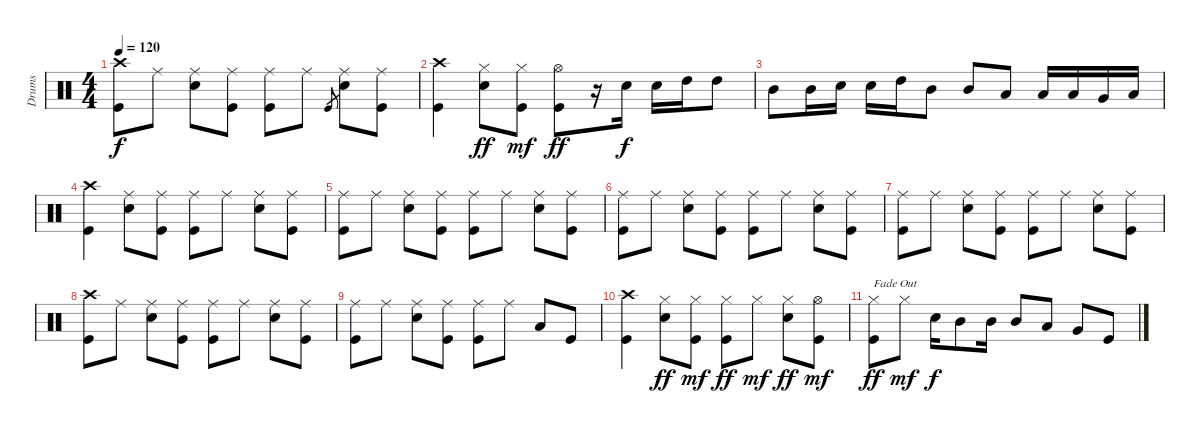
\track ("Drums" "Drums") {instrument percussion}
\staff {score}
\articulation defaults
\ts (4 4)
\tempo 120
\clef neutral
\ks c
("Crash high (hit)" "Kick (hit)").8{dy f} "Ride (middle)".8 ("Ride (middle)" "Snare (hit) 2").8 ("Ride (middle)" "Kick (hit)").8 ("Ride (middle)" "Kick (hit)").8 "Ride (middle)".8 "Kick (hit)".8{gr} ("Ride (middle)" "Snare (hit) 2").8 ("Ride (middle)" "Kick (hit)").8 |
("Crash high (hit)" "Kick (hit)").4 ("Hi-Hat (closed)" "Snare (hit) 2").8{dy ff} ("Hi-Hat (closed)" "Kick (hit)").8{dy mf} ("Hi-Hat (open)" "Kick (hit)").8{dy ff} r.16 "Snare (hit) 2".16{dy f} "Snare (hit) 2".16 "High Tom (hit)".16 "High Tom (hit)".8 |
"Mid Tom (hit)".8 "Mid Tom (hit)".16 "Snare (hit) 2".16 "Snare (hit) 2".16 "High Tom (hit)".16 "Mid Tom (hit)".8 "Mid Tom (hit)".8 "Low Tom (hit)".8 "Low Tom (hit)".16 "Low Tom (hit)".16 "Very Low Tom (hit)".16 "Low Floor Tom (hit)".16 |
("Crash high (hit)" "Kick (hit)").4{volume 8} ("Ride (middle)" "Snare (hit) 2").8 ("Ride (middle)" "Kick (hit)").8 ("Ride (middle)" "Kick (hit)").8 "Ride (middle)".8 ("Ride (middle)" "Snare (hit) 2").8 ("Ride (middle)" "Kick (hit)").8 |
("Ride (middle)" "Kick (hit)").8 "Ride (middle)".8 ("Ride (middle)" "Snare (hit) 2").8 ("Ride (middle)" "Kick (hit)").8 ("Ride (middle)" "Kick (hit)").8 "Ride (middle)".8 ("Ride (middle)" "Snare (hit) 2").8 ("Ride (middle)" "Kick (hit)").8 |
("Ride (middle)" "Kick (hit)").8 "Ride (middle)".8 ("Ride (middle)" "Snare (hit) 2").8 ("Ride (middle)" "Kick (hit)").8 ("Ride (middle)" "Kick (hit)").8 "Ride (middle)".8 ("Ride (middle)" "Snare (hit) 2").8 ("Ride (middle)" "Kick (hit)").8 |
("Ride (middle)" "Kick (hit)").8 "Ride (middle)".8 ("Ride (middle)" "Snare (hit) 2").8 ("Ride (middle)" "Kick (hit)").8 ("Ride (middle)" "Kick (hit)").8 "Ride (middle)".8 ("Ride (middle)" "Snare (hit) 2").8 ("Ride (middle)" "Kick (hit)").8 |
("Crash high (hit)" "Kick (hit)").8{volume 0} "Ride (middle)".8 ("Ride (middle)" "Snare (hit) 2").8 ("Ride (middle)" "Kick (hit)").8 ("Ride (middle)" "Kick (hit)").8 "Ride (middle)".8 ("Ride (middle)" "Snare (hit) 2").8 ("Ride (middle)" "Kick (hit)").8 |
("Ride (middle)" "Kick (hit)").8 "Ride (middle)".8 ("Ride (middle)" "Snare (hit) 2").8 ("Ride (middle)" "Kick (hit)").8 ("Ride (middle)" "Kick (hit)").8 "Ride (middle)".8 "Low Tom (hit)".8 "Kick (hit)".8 |
("Crash high (hit)" "Kick (hit)").4 ("Hi-Hat (closed)" "Snare (hit) 2").8{dy ff} ("Hi-Hat (closed)" "Kick (hit)").8{dy mf} ("Hi-Hat (closed)" "Kick (hit)").8{dy ff} "Hi-Hat (closed)".8{dy mf} ("Hi-Hat (closed)" "Snare (hit) 2").8{dy ff} ("Hi-Hat (open)" "Kick (hit)").8{dy mf} |
("Hi-Hat (closed)" "Kick (hit)").8{txt "Fade Out" dy ff} "Hi-Hat (closed)".8{dy mf} "Snare (hit) 2".16{dy f} "Mid Tom (hit)".8 "Mid Tom (hit)".16 "Mid Tom (hit)".8 "Low Tom (hit)".8 "Very Low Tom (hit)".8 "Kick (hit)".8
